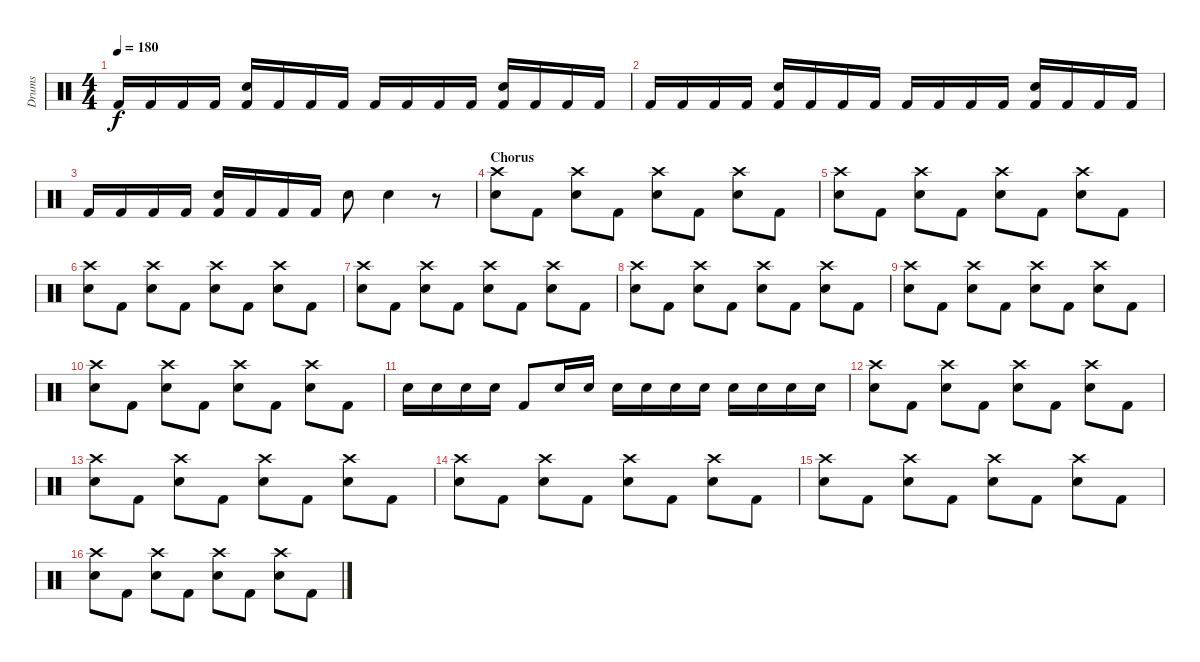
\track ("Drums" "Drums") {instrument percussion}
\staff {score}
\articulation defaults
\ts (4 4)
\tempo 180
\clef neutral
\ks c "Kick (hit) 2".16{dy f} "Kick (hit) 2".16 "Kick (hit) 2".16 "Kick (hit) 2".16
("Snare (hit) 2" "Kick (hit) 2").16 "Kick (hit) 2".16 "Kick (hit) 2".16 "Kick (hit) 2".16 "Kick (hit) 2".16 "Kick (hit) 2".16 "Kick (hit) 2".16 "Kick (hit) 2".16 ("Snare (hit) 2" "Kick (hit) 2").16 "Kick (hit) 2".16 "Kick (hit) 2".16 "Kick (hit) 2".16 |
"Kick (hit) 2".16 "Kick (hit) 2".16 "Kick (hit) 2".16 "Kick (hit) 2".16 ("Snare (hit) 2" "Kick (hit) 2").16 "Kick (hit) 2".16 "Kick (hit) 2".16 "Kick (hit) 2".16 "Kick (hit) 2".16 "Kick (hit) 2".16 "Kick (hit) 2".16 "Kick (hit) 2".16 ("Snare (hit) 2" "Kick (hit) 2").16 "Kick (hit) 2".16 "Kick (hit) 2".16 "Kick (hit) 2".16 |
"Kick (hit) 2".16 "Kick (hit) 2".16 "Kick (hit) 2".16 "Kick (hit) 2".16 ("Snare (hit) 2" "Kick (hit) 2").16 "Kick (hit) 2".16 "Kick (hit) 2".16 "Kick (hit) 2".16 "Snare (hit) 2".8 "Snare (hit) 2".4 r.8 |
\section ("" "Chorus")
("Crash high (hit)" "Snare (hit) 2").8 "Kick (hit) 2".8 ("Crash high (hit)" "Snare (hit) 2").8 "Kick (hit) 2".8 ("Crash high (hit)" "Snare (hit) 2").8 "Kick (hit) 2".8 ("Crash high (hit)" "Snare (hit) 2").8 "Kick (hit) 2".8 |
("Crash high (hit)" "Snare (hit) 2").8 "Kick (hit) 2".8 ("Crash high (hit)" "Snare (hit) 2").8 "Kick (hit) 2".8 ("Crash high (hit)" "Snare (hit) 2").8 "Kick (hit) 2".8 ("Crash high (hit)" "Snare (hit) 2").8 "Kick (hit) 2".8 |
("Crash high (hit)" "Snare (hit) 2").8 "Kick (hit) 2".8 ("Crash high (hit)" "Snare (hit) 2").8 "Kick (hit) 2".8 ("Crash high (hit)" "Snare (hit) 2").8 "Kick (hit) 2".8 ("Crash high (hit)" "Snare (hit) 2").8 "Kick (hit) 2".8 |
("Crash high (hit)" "Snare (hit) 2").8 "Kick (hit) 2".8 ("Crash high (hit)" "Snare (hit) 2").8 "Kick (hit) 2".8 ("Crash high (hit)" "Snare (hit) 2").8 "Kick (hit) 2".8 ("Crash high (hit)" "Snare (hit) 2").8 "Kick (hit) 2".8 |
("Crash high (hit)" "Snare (hit) 2").8 "Kick (hit) 2".8 ("Crash high (hit)" "Snare (hit) 2").8 "Kick (hit) 2".8 ("Crash high (hit)" "Snare (hit) 2").8 "Kick (hit) 2".8 ("Crash high (hit)" "Snare (hit) 2").8 "Kick (hit) 2".8 |
("Crash high (hit)" "Snare (hit) 2").8 "Kick (hit) 2".8 ("Crash high (hit)" "Snare (hit) 2").8 "Kick (hit) 2".8 ("Crash high (hit)" "Snare (hit) 2").8 "Kick (hit) 2".8 ("Crash high (hit)" "Snare (hit) 2").8 "Kick (hit) 2".8 |
("Crash high (hit)" "Snare (hit) 2").8 "Kick (hit) 2".8 ("Crash high (hit)" "Snare (hit) 2").8 "Kick (hit) 2".8 ("Crash high (hit)" "Snare (hit) 2").8 "Kick (hit) 2".8 ("Crash high (hit)" "Snare (hit) 2").8 "Kick (hit) 2".8 |
"Snare (hit) 2".16 "Snare (hit) 2".16 "Snare (hit) 2".16 "Snare (hit) 2".16 "Kick (hit) 2".8 "Snare (hit) 2".16 "Snare (hit) 2".16 "Snare (hit) 2".16 "Snare (hit) 2".16 "Snare (hit) 2".16 "Snare (hit) 2".16 "Snare (hit) 2".16 "Snare (hit) 2".16 "Snare (hit) 2".16 "Snare (hit) 2".16 |
("Crash high (hit)" "Snare (hit) 2").8 "Kick (hit) 2".8 ("Crash high (hit)" "Snare (hit) 2").8 "Kick (hit) 2".8 ("Crash high (hit)" "Snare (hit) 2").8 "Kick (hit) 2".8 ("Crash high (hit)" "Snare (hit) 2").8 "Kick (hit) 2".8 |
("Crash high (hit)" "Snare (hit) 2").8 "Kick (hit) 2".8 ("Crash high (hit)" "Snare (hit) 2").8 "Kick (hit) 2".8 ("Crash high (hit)" "Snare (hit) 2").8 "Kick (hit) 2".8 ("Crash high (hit)" "Snare (hit) 2").8 "Kick (hit) 2".8 |
("Crash high (hit)" "Snare (hit) 2").8 "Kick (hit) 2".8 ("Crash high (hit)" "Snare (hit) 2").8 "Kick (hit) 2".8 ("Crash high (hit)" "Snare (hit) 2").8 "Kick (hit) 2".8 ("Crash high (hit)" "Snare (hit) 2").8 "Kick (hit) 2".8 |
("Crash high (hit)" "Snare (hit) 2").8 "Kick (hit) 2".8 ("Crash high (hit)" "Snare (hit) 2").8 "Kick (hit) 2".8 ("Crash high (hit)" "Snare (hit) 2").8 "Kick (hit) 2".8 ("Crash high (hit)" "Snare (hit) 2").8 "Kick (hit) 2".8 |
("Crash high (hit)" "Snare (hit) 2").8 "Kick (hit) 2".8 ("Crash high (hit)" "Snare (hit) 2").8 "Kick (hit) 2".8 ("Crash high (hit)" "Snare (hit) 2").8 "Kick (hit) 2".8 ("Crash high (hit)" "Snare (hit) 2").8 "Kick (hit) 2".8
